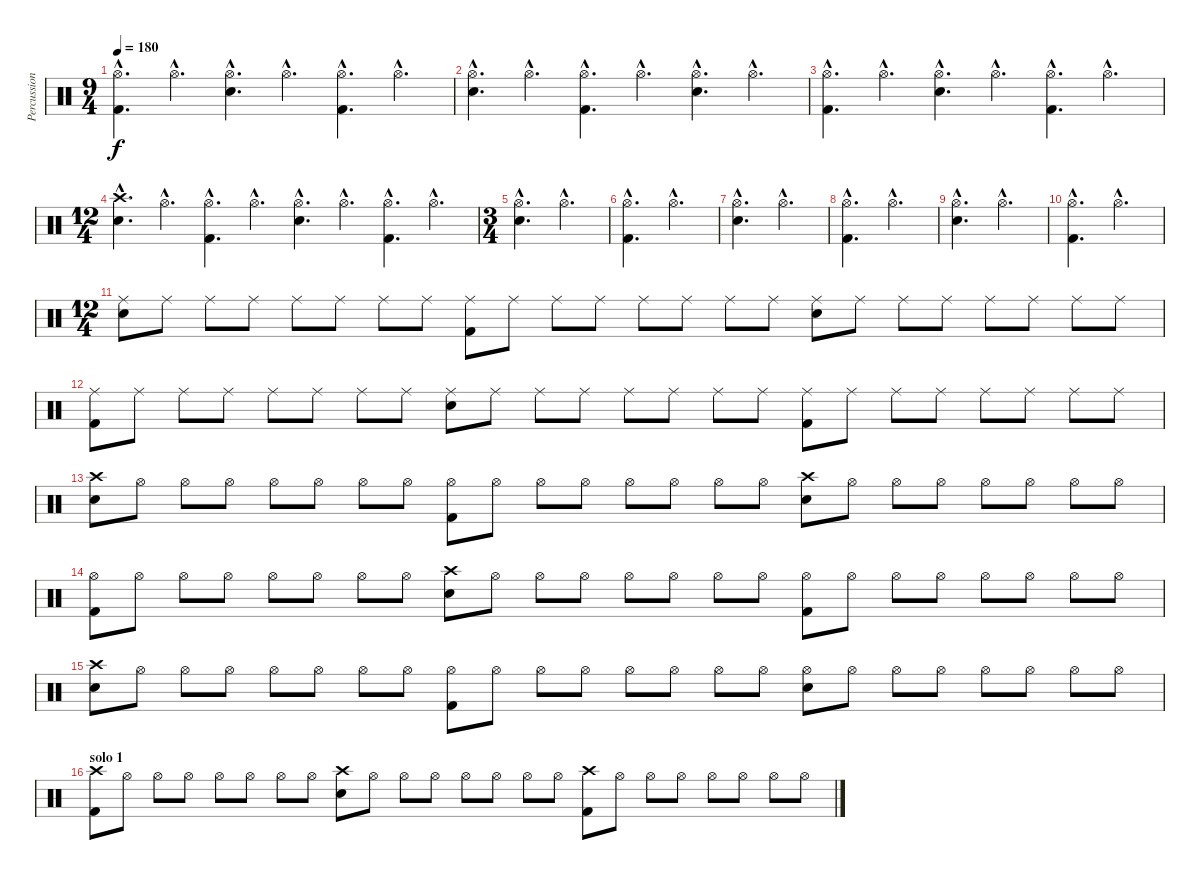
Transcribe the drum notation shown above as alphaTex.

\track ("Percussion" "Percussion") {instrument percussion}
\staff {score}
\articulation defaults
\ts (9 4)
\tempo 180
\clef neutral
\ks c
("Hi-Hat (open)"{hac} "Kick (hit) 2"{hac}).4{d dy f} "Hi-Hat (open)"{hac}.4{d} ("Hi-Hat (open)"{hac} "Electric Snare (hit)"{hac}).4{d} "Hi-Hat (open)"{hac}.4{d} ("Hi-Hat (open)"{hac} "Kick (hit) 2"{hac}).4{d} "Hi-Hat (open)"{hac}.4{d} |
("Hi-Hat (open)"{hac} "Electric Snare (hit)"{hac}).4{d} "Hi-Hat (open)"{hac}.4{d} ("Hi-Hat (open)"{hac} "Kick (hit) 2"{hac}).4{d} "Hi-Hat (open)"{hac}.4{d} ("Hi-Hat (open)"{hac} "Electric Snare (hit)"{hac}).4{d} "Hi-Hat (open)"{hac}.4{d} |
("Hi-Hat (open)"{hac} "Kick (hit) 2"{hac}).4{d} "Hi-Hat (open)"{hac}.4{d} ("Hi-Hat (open)"{hac} "Electric Snare (hit)"{hac}).4{d} "Hi-Hat (open)"{hac}.4{d} ("Hi-Hat (open)"{hac} "Kick (hit) 2"{hac}).4{d} "Hi-Hat (open)"{hac}.4{d} |
\ts (12 4)
("Crash high (hit)"{hac} "Electric Snare (hit)"{hac}).4{d} "Hi-Hat (open)"{hac}.4{d} ("Hi-Hat (open)"{hac} "Kick (hit) 2"{hac}).4{d} "Hi-Hat (open)"{hac}.4{d} ("Hi-Hat (open)"{hac} "Electric Snare (hit)"{hac}).4{d} "Hi-Hat (open)"{hac}.4{d} ("Hi-Hat (open)"{hac} "Kick (hit) 2"{hac}).4{d} "Hi-Hat (open)"{hac}.4{d} |
\ts (3 4)
("Hi-Hat (open)"{hac} "Electric Snare (hit)"{hac}).4{d} "Hi-Hat (open)"{hac}.4{d} |
("Hi-Hat (open)"{hac} "Kick (hit) 2"{hac}).4{d} "Hi-Hat (open)"{hac}.4{d} |
("Hi-Hat (open)"{hac} "Electric Snare (hit)"{hac}).4{d} "Hi-Hat (open)"{hac}.4{d} |
("Hi-Hat (open)"{hac} "Kick (hit) 2"{hac}).4{d} "Hi-Hat (open)"{hac}.4{d} |
("Hi-Hat (open)"{hac} "Electric Snare (hit)"{hac}).4{d} "Hi-Hat (open)"{hac}.4{d} |
("Hi-Hat (open)"{hac} "Kick (hit) 2"{hac}).4{d} "Hi-Hat (open)"{hac}.4{d} |
\ts (12 4)
("Ride (middle)" "Electric Snare (hit)").8 "Ride (middle)".8 "Ride (middle)".8 "Ride (middle)".8 "Ride (middle)".8 "Ride (middle)".8 "Ride (middle)".8 "Ride (middle)".8 ("Ride (middle)" "Kick (hit) 2").8 "Ride (middle)".8 "Ride (middle)".8 "Ride (middle)".8 "Ride (middle)".8 "Ride (middle)".8 "Ride (middle)".8 "Ride (middle)".8 ("Ride (middle)" "Electric Snare (hit)").8 "Ride (middle)".8 "Ride (middle)".8 "Ride (middle)".8 "Ride (middle)".8 "Ride (middle)".8 "Ride (middle)".8 "Ride (middle)".8 |
("Ride (middle)" "Kick (hit) 2").8 "Ride (middle)".8 "Ride (middle)".8 "Ride (middle)".8 "Ride (middle)".8 "Ride (middle)".8 "Ride (middle)".8 "Ride (middle)".8 ("Ride (middle)" "Electric Snare (hit)").8 "Ride (middle)".8 "Ride (middle)".8 "Ride (middle)".8 "Ride (middle)".8 "Ride (middle)".8 "Ride (middle)".8 "Ride (middle)".8 ("Ride (middle)" "Kick (hit) 2").8 "Ride (middle)".8 "Ride (middle)".8 "Ride (middle)".8 "Ride (middle)".8 "Ride (middle)".8 "Ride (middle)".8 "Ride (middle)".8 |
("Crash high (hit)" "Electric Snare (hit)").8 "Hi-Hat (open)".8 "Hi-Hat (open)".8 "Hi-Hat (open)".8 "Hi-Hat (open)".8 "Hi-Hat (open)".8 "Hi-Hat (open)".8 "Hi-Hat (open)".8 ("Hi-Hat (open)" "Kick (hit) 2").8 "Hi-Hat (open)".8 "Hi-Hat (open)".8 "Hi-Hat (open)".8 "Hi-Hat (open)".8 "Hi-Hat (open)".8 "Hi-Hat (open)".8 "Hi-Hat (open)".8 ("Crash high (hit)" "Electric Snare (hit)").8 "Hi-Hat (open)".8 "Hi-Hat (open)".8 "Hi-Hat (open)".8 "Hi-Hat (open)".8 "Hi-Hat (open)".8 "Hi-Hat (open)".8 "Hi-Hat (open)".8 |
("Hi-Hat (open)" "Kick (hit) 2").8 "Hi-Hat (open)".8 "Hi-Hat (open)".8 "Hi-Hat (open)".8 "Hi-Hat (open)".8 "Hi-Hat (open)".8 "Hi-Hat (open)".8 "Hi-Hat (open)".8 ("Crash high (hit)" "Electric Snare (hit)").8 "Hi-Hat (open)".8 "Hi-Hat (open)".8 "Hi-Hat (open)".8 "Hi-Hat (open)".8 "Hi-Hat (open)".8 "Hi-Hat (open)".8 "Hi-Hat (open)".8 ("Hi-Hat (open)" "Kick (hit) 2").8 "Hi-Hat (open)".8 "Hi-Hat (open)".8 "Hi-Hat (open)".8 "Hi-Hat (open)".8 "Hi-Hat (open)".8 "Hi-Hat (open)".8 "Hi-Hat (open)".8 |
("Crash high (hit)" "Electric Snare (hit)").8 "Hi-Hat (open)".8 "Hi-Hat (open)".8 "Hi-Hat (open)".8 "Hi-Hat (open)".8 "Hi-Hat (open)".8 "Hi-Hat (open)".8 "Hi-Hat (open)".8 ("Hi-Hat (open)" "Kick (hit) 2").8 "Hi-Hat (open)".8 "Hi-Hat (open)".8 "Hi-Hat (open)".8 "Hi-Hat (open)".8 "Hi-Hat (open)".8 "Hi-Hat (open)".8 "Hi-Hat (open)".8 ("Hi-Hat (open)" "Electric Snare (hit)").8 "Hi-Hat (open)".8 "Hi-Hat (open)".8 "Hi-Hat (open)".8 "Hi-Hat (open)".8 "Hi-Hat (open)".8 "Hi-Hat (open)".8 "Hi-Hat (open)".8 |
\section ("" "solo 1")
("Crash high (hit)" "Kick (hit) 2").8 "Hi-Hat (open)".8 "Hi-Hat (open)".8 "Hi-Hat (open)".8 "Hi-Hat (open)".8 "Hi-Hat (open)".8 "Hi-Hat (open)".8 "Hi-Hat (open)".8 ("Crash high (hit)" "Electric Snare (hit)").8 "Hi-Hat (open)".8 "Hi-Hat (open)".8 "Hi-Hat (open)".8 "Hi-Hat (open)".8 "Hi-Hat (open)".8 "Hi-Hat (open)".8 "Hi-Hat (open)".8 ("Crash high (hit)" "Kick (hit) 2").8 "Hi-Hat (open)".8 "Hi-Hat (open)".8 "Hi-Hat (open)".8 "Hi-Hat (open)".8 "Hi-Hat (open)".8 "Hi-Hat (open)".8 "Hi-Hat (open)".8
